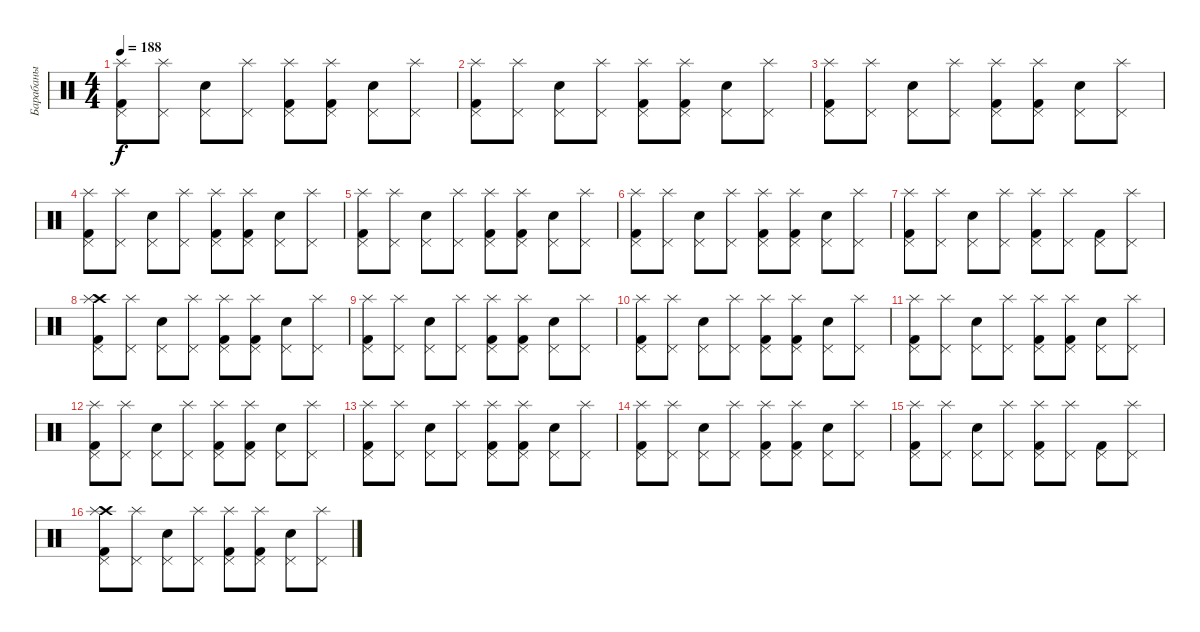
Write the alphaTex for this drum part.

\track ("Барабаны" "Барабаны") {instrument percussion}
\staff {score}
\articulation defaults
\ts (4 4)
\tempo 188
\clef neutral
\ks c
("Splash (hit)" "Pedal Hi-Hat (hit)" "Kick (hit) 2").8{dy f} ("Splash (hit)" "Pedal Hi-Hat (hit)").8 ("Pedal Hi-Hat (hit)" "Electric Snare (hit)").8 ("Splash (hit)" "Pedal Hi-Hat (hit)").8 ("Splash (hit)" "Pedal Hi-Hat (hit)" "Kick (hit) 2").8 ("Splash (hit)" "Pedal Hi-Hat (hit)" "Kick (hit) 2").8 ("Pedal Hi-Hat (hit)" "Electric Snare (hit)").8 ("Splash (hit)" "Pedal Hi-Hat (hit)").8 |
("Splash (hit)" "Pedal Hi-Hat (hit)" "Kick (hit) 2").8 ("Splash (hit)" "Pedal Hi-Hat (hit)").8 ("Pedal Hi-Hat (hit)" "Electric Snare (hit)").8 ("Splash (hit)" "Pedal Hi-Hat (hit)").8 ("Splash (hit)" "Pedal Hi-Hat (hit)" "Kick (hit) 2").8 ("Splash (hit)" "Pedal Hi-Hat (hit)" "Kick (hit) 2").8 ("Pedal Hi-Hat (hit)" "Electric Snare (hit)").8 ("Splash (hit)" "Pedal Hi-Hat (hit)").8 |
("Splash (hit)" "Pedal Hi-Hat (hit)" "Kick (hit) 2").8 ("Splash (hit)" "Pedal Hi-Hat (hit)").8 ("Pedal Hi-Hat (hit)" "Electric Snare (hit)").8 ("Splash (hit)" "Pedal Hi-Hat (hit)").8 ("Splash (hit)" "Pedal Hi-Hat (hit)" "Kick (hit) 2").8 ("Splash (hit)" "Pedal Hi-Hat (hit)" "Kick (hit) 2").8 ("Pedal Hi-Hat (hit)" "Electric Snare (hit)").8 ("Splash (hit)" "Pedal Hi-Hat (hit)").8 |
("Splash (hit)" "Pedal Hi-Hat (hit)" "Kick (hit) 2").8 ("Splash (hit)" "Pedal Hi-Hat (hit)").8 ("Pedal Hi-Hat (hit)" "Electric Snare (hit)").8 ("Splash (hit)" "Pedal Hi-Hat (hit)").8 ("Splash (hit)" "Pedal Hi-Hat (hit)" "Kick (hit) 2").8 ("Splash (hit)" "Pedal Hi-Hat (hit)" "Kick (hit) 2").8 ("Pedal Hi-Hat (hit)" "Electric Snare (hit)").8 ("Splash (hit)" "Pedal Hi-Hat (hit)").8 |
("Splash (hit)" "Pedal Hi-Hat (hit)" "Kick (hit) 2").8 ("Splash (hit)" "Pedal Hi-Hat (hit)").8 ("Pedal Hi-Hat (hit)" "Electric Snare (hit)").8 ("Splash (hit)" "Pedal Hi-Hat (hit)").8 ("Splash (hit)" "Pedal Hi-Hat (hit)" "Kick (hit) 2").8 ("Splash (hit)" "Pedal Hi-Hat (hit)" "Kick (hit) 2").8 ("Pedal Hi-Hat (hit)" "Electric Snare (hit)").8 ("Splash (hit)" "Pedal Hi-Hat (hit)").8 |
("Splash (hit)" "Pedal Hi-Hat (hit)" "Kick (hit) 2").8 ("Splash (hit)" "Pedal Hi-Hat (hit)").8 ("Pedal Hi-Hat (hit)" "Electric Snare (hit)").8 ("Splash (hit)" "Pedal Hi-Hat (hit)").8 ("Splash (hit)" "Pedal Hi-Hat (hit)" "Kick (hit) 2").8 ("Splash (hit)" "Pedal Hi-Hat (hit)" "Kick (hit) 2").8 ("Pedal Hi-Hat (hit)" "Electric Snare (hit)").8 ("Splash (hit)" "Pedal Hi-Hat (hit)").8 |
("Pedal Hi-Hat (hit)" "Kick (hit) 2" "Splash (hit)").8 ("Pedal Hi-Hat (hit)" "Splash (hit)").8 ("Pedal Hi-Hat (hit)" "Electric Snare (hit)").8 ("Pedal Hi-Hat (hit)" "Splash (hit)").8 ("Pedal Hi-Hat (hit)" "Kick (hit) 2" "Splash (hit)").8 ("Pedal Hi-Hat (hit)" "Splash (hit)").8 ("Pedal Hi-Hat (hit)" "Kick (hit) 2").8 ("Pedal Hi-Hat (hit)" "Splash (hit)").8 |
("Crash high (hit)" "Splash (hit)" "Pedal Hi-Hat (hit)" "Kick (hit) 2").8 ("Splash (hit)" "Pedal Hi-Hat (hit)").8 ("Pedal Hi-Hat (hit)" "Electric Snare (hit)").8 ("Splash (hit)" "Pedal Hi-Hat (hit)").8 ("Splash (hit)" "Pedal Hi-Hat (hit)" "Kick (hit) 2").8 ("Splash (hit)" "Pedal Hi-Hat (hit)" "Kick (hit) 2").8 ("Pedal Hi-Hat (hit)" "Electric Snare (hit)").8 ("Splash (hit)" "Pedal Hi-Hat (hit)").8 |
("Pedal Hi-Hat (hit)" "Kick (hit) 2" "Splash (hit)").8 ("Pedal Hi-Hat (hit)" "Splash (hit)").8 ("Pedal Hi-Hat (hit)" "Electric Snare (hit)").8 ("Pedal Hi-Hat (hit)" "Splash (hit)").8 ("Pedal Hi-Hat (hit)" "Kick (hit) 2" "Splash (hit)").8 ("Pedal Hi-Hat (hit)" "Kick (hit) 2" "Splash (hit)").8 ("Pedal Hi-Hat (hit)" "Electric Snare (hit)").8 ("Pedal Hi-Hat (hit)" "Splash (hit)").8 |
("Pedal Hi-Hat (hit)" "Kick (hit) 2" "Splash (hit)").8 ("Pedal Hi-Hat (hit)" "Splash (hit)").8 ("Pedal Hi-Hat (hit)" "Electric Snare (hit)").8 ("Pedal Hi-Hat (hit)" "Splash (hit)").8 ("Pedal Hi-Hat (hit)" "Kick (hit) 2" "Splash (hit)").8 ("Pedal Hi-Hat (hit)" "Kick (hit) 2" "Splash (hit)").8 ("Pedal Hi-Hat (hit)" "Electric Snare (hit)").8 ("Pedal Hi-Hat (hit)" "Splash (hit)").8 |
("Pedal Hi-Hat (hit)" "Kick (hit) 2" "Splash (hit)").8 ("Pedal Hi-Hat (hit)" "Splash (hit)").8 ("Pedal Hi-Hat (hit)" "Electric Snare (hit)").8 ("Pedal Hi-Hat (hit)" "Splash (hit)").8 ("Pedal Hi-Hat (hit)" "Kick (hit) 2" "Splash (hit)").8 ("Pedal Hi-Hat (hit)" "Kick (hit) 2" "Splash (hit)").8 ("Pedal Hi-Hat (hit)" "Electric Snare (hit)").8 ("Pedal Hi-Hat (hit)" "Splash (hit)").8 |
("Pedal Hi-Hat (hit)" "Kick (hit) 2" "Splash (hit)").8 ("Pedal Hi-Hat (hit)" "Splash (hit)").8 ("Pedal Hi-Hat (hit)" "Electric Snare (hit)").8 ("Pedal Hi-Hat (hit)" "Splash (hit)").8 ("Pedal Hi-Hat (hit)" "Kick (hit) 2" "Splash (hit)").8 ("Pedal Hi-Hat (hit)" "Kick (hit) 2" "Splash (hit)").8 ("Pedal Hi-Hat (hit)" "Electric Snare (hit)").8 ("Pedal Hi-Hat (hit)" "Splash (hit)").8 |
("Pedal Hi-Hat (hit)" "Kick (hit) 2" "Splash (hit)").8 ("Pedal Hi-Hat (hit)" "Splash (hit)").8 ("Pedal Hi-Hat (hit)" "Electric Snare (hit)").8 ("Pedal Hi-Hat (hit)" "Splash (hit)").8 ("Pedal Hi-Hat (hit)" "Kick (hit) 2" "Splash (hit)").8 ("Pedal Hi-Hat (hit)" "Kick (hit) 2" "Splash (hit)").8 ("Pedal Hi-Hat (hit)" "Electric Snare (hit)").8 ("Pedal Hi-Hat (hit)" "Splash (hit)").8 |
("Pedal Hi-Hat (hit)" "Kick (hit) 2" "Splash (hit)").8 ("Pedal Hi-Hat (hit)" "Splash (hit)").8 ("Pedal Hi-Hat (hit)" "Electric Snare (hit)").8 ("Pedal Hi-Hat (hit)" "Splash (hit)").8 ("Pedal Hi-Hat (hit)" "Kick (hit) 2" "Splash (hit)").8 ("Pedal Hi-Hat (hit)" "Kick (hit) 2" "Splash (hit)").8 ("Pedal Hi-Hat (hit)" "Electric Snare (hit)").8 ("Pedal Hi-Hat (hit)" "Splash (hit)").8 |
("Splash (hit)" "Pedal Hi-Hat (hit)" "Kick (hit) 2").8 ("Splash (hit)" "Pedal Hi-Hat (hit)").8 ("Electric Snare (hit)" "Pedal Hi-Hat (hit)").8 ("Splash (hit)" "Pedal Hi-Hat (hit)").8 ("Splash (hit)" "Pedal Hi-Hat (hit)" "Kick (hit) 2").8 ("Splash (hit)" "Pedal Hi-Hat (hit)").8 ("Kick (hit) 2" "Pedal Hi-Hat (hit)").8 ("Splash (hit)" "Pedal Hi-Hat (hit)").8 |
("Pedal Hi-Hat (hit)" "Kick (hit) 2" "Crash high (hit)" "Splash (hit)").8 ("Pedal Hi-Hat (hit)" "Splash (hit)").8 ("Pedal Hi-Hat (hit)" "Electric Snare (hit)").8 ("Pedal Hi-Hat (hit)" "Splash (hit)").8 ("Pedal Hi-Hat (hit)" "Kick (hit) 2" "Splash (hit)").8 ("Pedal Hi-Hat (hit)" "Kick (hit) 2" "Splash (hit)").8 ("Pedal Hi-Hat (hit)" "Electric Snare (hit)").8 ("Pedal Hi-Hat (hit)" "Splash (hit)").8
